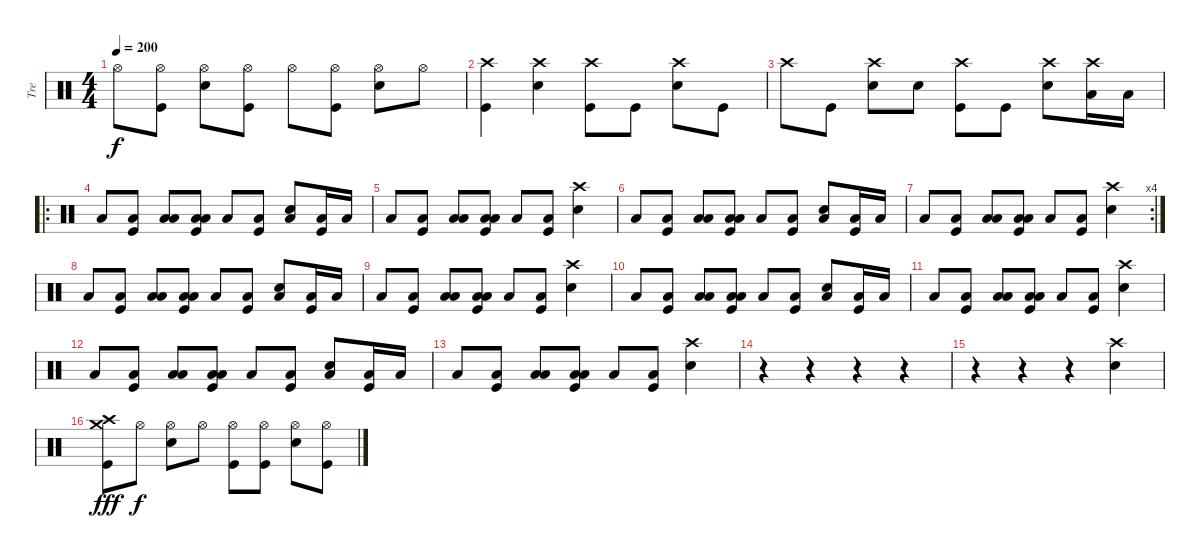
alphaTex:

\track ("Tre" "Tre") {instrument percussion}
\staff {score}
\articulation defaults
\ts (4 4)
\tempo 200
\clef neutral
\ks c "Hi-Hat (open)".8{dy f}
("Hi-Hat (open)" "Kick (hit)").8 ("Hi-Hat (open)" "Snare (hit) 2").8 ("Hi-Hat (open)" "Kick (hit)").8 "Hi-Hat (open)".8 ("Hi-Hat (open)" "Kick (hit)").8 ("Hi-Hat (open)" "Snare (hit) 2").8 "Hi-Hat (open)".8 |
("Kick (hit)" "Crash high (hit)").4 ("Snare (hit) 2" "Crash high (hit)").4 ("Kick (hit)" "Crash high (hit)").8 "Kick (hit)".8 ("Snare (hit) 2" "Crash high (hit)").8 "Kick (hit)".8 |
"Crash high (hit)".8 "Kick (hit)".8 ("Snare (hit) 2" "Crash high (hit)").8 "Snare (hit) 2".8 ("Kick (hit)" "Crash high (hit)").8 "Kick (hit)".8 ("Snare (hit) 2" "Crash high (hit)").8 ("Low Floor Tom (hit)" "Crash high (hit)").16 "Low Floor Tom (hit)".16 |
\ro "Low Floor Tom (hit)".8
("Low Floor Tom (hit)" "Kick (hit)").8 ("Low Tom (hit)" "Low Floor Tom (hit)").8 ("Low Tom (hit)" "Low Floor Tom (hit)" "Kick (hit)").8 "Low Floor Tom (hit)".8 ("Low Floor Tom (hit)" "Kick (hit)").8 ("Low Floor Tom (hit)" "Snare (hit) 2").8 ("Low Floor Tom (hit)" "Kick (hit)").16 "Low Floor Tom (hit)".16 |
"Low Floor Tom (hit)".8 ("Low Floor Tom (hit)" "Kick (hit)").8 ("Low Tom (hit)" "Low Floor Tom (hit)").8 ("Low Tom (hit)" "Low Floor Tom (hit)" "Kick (hit)").8 "Low Floor Tom (hit)".8 ("Low Floor Tom (hit)" "Kick (hit)").8 ("Snare (hit) 2" "Crash high (hit)").4 |
"Low Floor Tom (hit)".8 ("Low Floor Tom (hit)" "Kick (hit)").8 ("Low Tom (hit)" "Low Floor Tom (hit)").8 ("Low Tom (hit)" "Low Floor Tom (hit)" "Kick (hit)").8 "Low Floor Tom (hit)".8 ("Low Floor Tom (hit)" "Kick (hit)").8 ("Low Floor Tom (hit)" "Snare (hit) 2").8 ("Low Floor Tom (hit)" "Kick (hit)").16 "Low Floor Tom (hit)".16 |
\rc 4 "Low Floor Tom (hit)".8
("Low Floor Tom (hit)" "Kick (hit)").8 ("Low Tom (hit)" "Low Floor Tom (hit)").8 ("Low Tom (hit)" "Low Floor Tom (hit)" "Kick (hit)").8 "Low Floor Tom (hit)".8 ("Low Floor Tom (hit)" "Kick (hit)").8 ("Snare (hit) 2" "Crash high (hit)").4 |
"Low Floor Tom (hit)".8 ("Low Floor Tom (hit)" "Kick (hit)").8 ("Low Tom (hit)" "Low Floor Tom (hit)").8 ("Low Tom (hit)" "Low Floor Tom (hit)" "Kick (hit)").8 "Low Floor Tom (hit)".8 ("Low Floor Tom (hit)" "Kick (hit)").8 ("Low Floor Tom (hit)" "Snare (hit) 2").8 ("Low Floor Tom (hit)" "Kick (hit)").16 "Low Floor Tom (hit)".16 |
"Low Floor Tom (hit)".8 ("Low Floor Tom (hit)" "Kick (hit)").8 ("Low Tom (hit)" "Low Floor Tom (hit)").8 ("Low Tom (hit)" "Low Floor Tom (hit)" "Kick (hit)").8 "Low Floor Tom (hit)".8 ("Low Floor Tom (hit)" "Kick (hit)").8 ("Snare (hit) 2" "Crash high (hit)").4 |
"Low Floor Tom (hit)".8 ("Low Floor Tom (hit)" "Kick (hit)").8 ("Low Tom (hit)" "Low Floor Tom (hit)").8 ("Low Tom (hit)" "Low Floor Tom (hit)" "Kick (hit)").8 "Low Floor Tom (hit)".8 ("Low Floor Tom (hit)" "Kick (hit)").8 ("Low Floor Tom (hit)" "Snare (hit) 2").8 ("Low Floor Tom (hit)" "Kick (hit)").16 "Low Floor Tom (hit)".16 |
"Low Floor Tom (hit)".8 ("Low Floor Tom (hit)" "Kick (hit)").8 ("Low Tom (hit)" "Low Floor Tom (hit)").8 ("Low Tom (hit)" "Low Floor Tom (hit)" "Kick (hit)").8 "Low Floor Tom (hit)".8 ("Low Floor Tom (hit)" "Kick (hit)").8 ("Snare (hit) 2" "Crash high (hit)").4 |
"Low Floor Tom (hit)".8 ("Low Floor Tom (hit)" "Kick (hit)").8 ("Low Tom (hit)" "Low Floor Tom (hit)").8 ("Low Tom (hit)" "Low Floor Tom (hit)" "Kick (hit)").8 "Low Floor Tom (hit)".8 ("Low Floor Tom (hit)" "Kick (hit)").8 ("Low Floor Tom (hit)" "Snare (hit) 2").8 ("Low Floor Tom (hit)" "Kick (hit)").16 "Low Floor Tom (hit)".16 |
"Low Floor Tom (hit)".8 ("Low Floor Tom (hit)" "Kick (hit)").8 ("Low Tom (hit)" "Low Floor Tom (hit)").8 ("Low Tom (hit)" "Low Floor Tom (hit)" "Kick (hit)").8 "Low Floor Tom (hit)".8 ("Low Floor Tom (hit)" "Kick (hit)").8 ("Snare (hit) 2" "Crash high (hit)").4 |
r.4 r.4 r.4 r.4 |
r.4 r.4 r.4 ("Snare (hit) 2" "Crash high (hit)").4 |
("Crash medium (hit)" "Kick (hit)" "Crash high (hit)").8{dy fff} "Hi-Hat (open)".8{dy f} ("Hi-Hat (open)" "Snare (hit) 2").8 "Hi-Hat (open)".8 ("Hi-Hat (open)" "Kick (hit)").8 ("Hi-Hat (open)" "Kick (hit)").8 ("Hi-Hat (open)" "Snare (hit) 2").8 ("Hi-Hat (open)" "Kick (hit)").8
